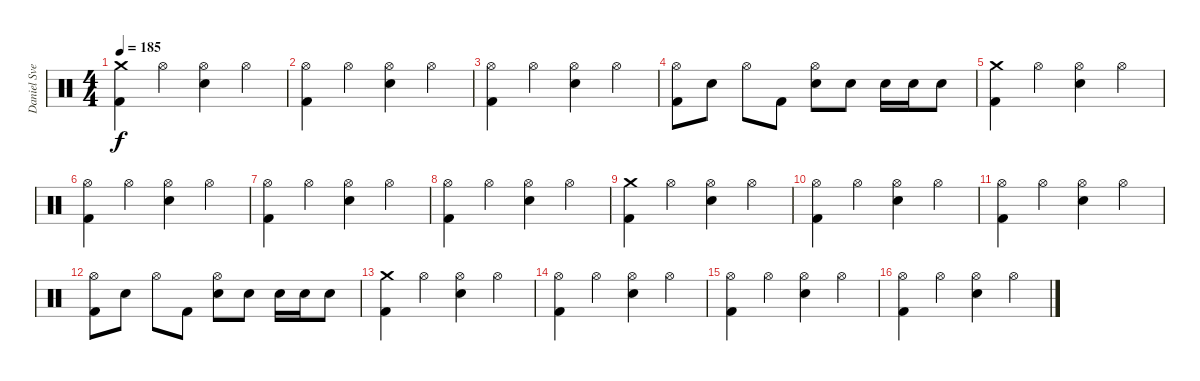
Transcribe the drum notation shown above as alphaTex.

\track ("Daniel Svensson" "Daniel Sve") {instrument percussion}
\staff {score}
\articulation defaults
\ts (4 4)
\tempo 185
\clef neutral
\ks c
("Kick (hit) 2" "Crash medium (hit)").4{dy f} "Hi-Hat (open)".4 ("Electric Snare (hit)" "Hi-Hat (open)").4 "Hi-Hat (open)".4 |
("Kick (hit) 2" "Hi-Hat (open)").4 "Hi-Hat (open)".4 ("Electric Snare (hit)" "Hi-Hat (open)").4 "Hi-Hat (open)".4 |
("Kick (hit) 2" "Hi-Hat (open)").4 "Hi-Hat (open)".4 ("Electric Snare (hit)" "Hi-Hat (open)").4 "Hi-Hat (open)".4 |
("Kick (hit) 2" "Hi-Hat (open)").8 "Electric Snare (hit)".8 "Hi-Hat (open)".8 "Kick (hit) 2".8 ("Electric Snare (hit)" "Hi-Hat (open)").8 "Electric Snare (hit)".8 "Electric Snare (hit)".16 "Electric Snare (hit)".16 "Electric Snare (hit)".8 |
("Kick (hit) 2" "Crash medium (hit)").4 "Hi-Hat (open)".4 ("Electric Snare (hit)" "Hi-Hat (open)").4 "Hi-Hat (open)".4 |
("Kick (hit) 2" "Hi-Hat (open)").4 "Hi-Hat (open)".4 ("Electric Snare (hit)" "Hi-Hat (open)").4 "Hi-Hat (open)".4 |
("Kick (hit) 2" "Hi-Hat (open)").4 "Hi-Hat (open)".4 ("Electric Snare (hit)" "Hi-Hat (open)").4 "Hi-Hat (open)".4 |
("Kick (hit) 2" "Hi-Hat (open)").4 "Hi-Hat (open)".4 ("Electric Snare (hit)" "Hi-Hat (open)").4 "Hi-Hat (open)".4 |
("Kick (hit) 2" "Crash medium (hit)").4 "Hi-Hat (open)".4 ("Electric Snare (hit)" "Hi-Hat (open)").4 "Hi-Hat (open)".4 |
("Kick (hit) 2" "Hi-Hat (open)").4 "Hi-Hat (open)".4 ("Electric Snare (hit)" "Hi-Hat (open)").4 "Hi-Hat (open)".4 |
("Kick (hit) 2" "Hi-Hat (open)").4 "Hi-Hat (open)".4 ("Electric Snare (hit)" "Hi-Hat (open)").4 "Hi-Hat (open)".4 |
("Kick (hit) 2" "Hi-Hat (open)").8 "Electric Snare (hit)".8 "Hi-Hat (open)".8 "Kick (hit) 2".8 ("Electric Snare (hit)" "Hi-Hat (open)").8 "Electric Snare (hit)".8 "Electric Snare (hit)".16 "Electric Snare (hit)".16 "Electric Snare (hit)".8 |
("Kick (hit) 2" "Crash medium (hit)").4 "Hi-Hat (open)".4 ("Electric Snare (hit)" "Hi-Hat (open)").4 "Hi-Hat (open)".4 |
("Kick (hit) 2" "Hi-Hat (open)").4 "Hi-Hat (open)".4 ("Electric Snare (hit)" "Hi-Hat (open)").4 "Hi-Hat (open)".4 |
("Kick (hit) 2" "Hi-Hat (open)").4 "Hi-Hat (open)".4 ("Electric Snare (hit)" "Hi-Hat (open)").4 "Hi-Hat (open)".4 |
("Kick (hit) 2" "Hi-Hat (open)").4 "Hi-Hat (open)".4 ("Electric Snare (hit)" "Hi-Hat (open)").4 "Hi-Hat (open)".4
